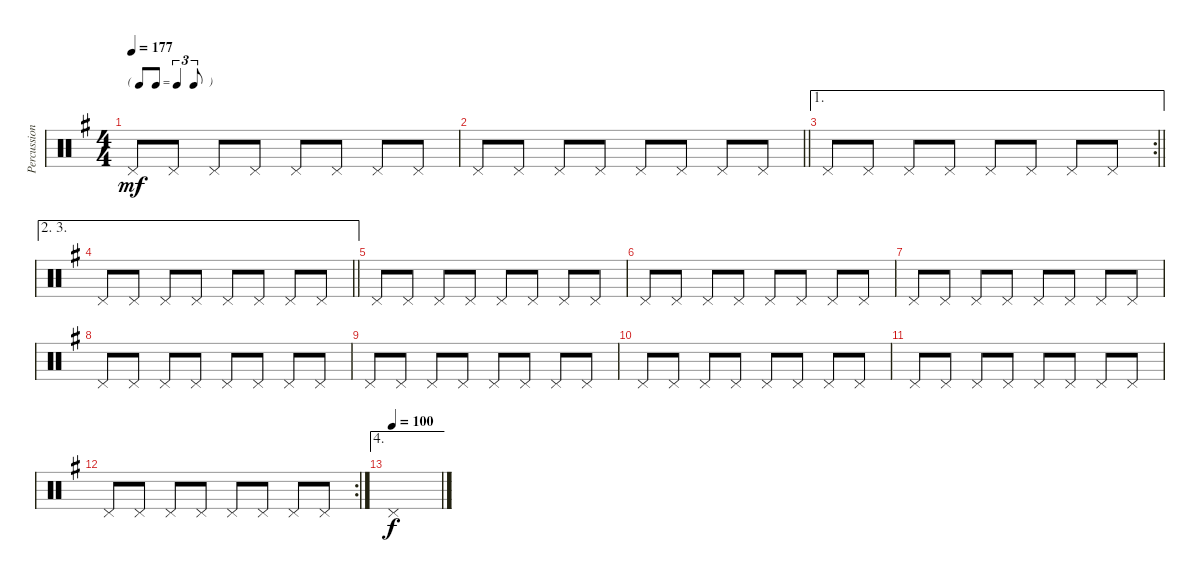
\track ("Percussion" "Percussion") {instrument percussion}
\staff {score}
\articulation defaults
\ts (4 4)
\tf triplet8th
\tempo 177
\clef neutral
\ks g "Pedal Hi-Hat (hit)".8{dy mf} "Pedal Hi-Hat (hit)".8 "Pedal Hi-Hat (hit)".8 "Pedal Hi-Hat (hit)".8 "Pedal Hi-Hat (hit)".8 "Pedal Hi-Hat (hit)".8 "Pedal Hi-Hat (hit)".8 "Pedal Hi-Hat (hit)".8
|
\barLineRight lightlight "Pedal Hi-Hat (hit)".8 "Pedal Hi-Hat (hit)".8 "Pedal Hi-Hat (hit)".8 "Pedal Hi-Hat (hit)".8 "Pedal Hi-Hat (hit)".8 "Pedal Hi-Hat (hit)".8 "Pedal Hi-Hat (hit)".8 "Pedal Hi-Hat (hit)".8
|
\ae 1
\rc 2
\barLineRight lightlight "Pedal Hi-Hat (hit)".8 "Pedal Hi-Hat (hit)".8 "Pedal Hi-Hat (hit)".8 "Pedal Hi-Hat (hit)".8 "Pedal Hi-Hat (hit)".8 "Pedal Hi-Hat (hit)".8 "Pedal Hi-Hat (hit)".8 "Pedal Hi-Hat (hit)".8
|
\ae (2 3)
\barLineRight lightlight "Pedal Hi-Hat (hit)".8 "Pedal Hi-Hat (hit)".8 "Pedal Hi-Hat (hit)".8 "Pedal Hi-Hat (hit)".8 "Pedal Hi-Hat (hit)".8 "Pedal Hi-Hat (hit)".8 "Pedal Hi-Hat (hit)".8 "Pedal Hi-Hat (hit)".8
|
"Pedal Hi-Hat (hit)".8 "Pedal Hi-Hat (hit)".8 "Pedal Hi-Hat (hit)".8 "Pedal Hi-Hat (hit)".8 "Pedal Hi-Hat (hit)".8 "Pedal Hi-Hat (hit)".8 "Pedal Hi-Hat (hit)".8 "Pedal Hi-Hat (hit)".8 |
"Pedal Hi-Hat (hit)".8 "Pedal Hi-Hat (hit)".8 "Pedal Hi-Hat (hit)".8 "Pedal Hi-Hat (hit)".8 "Pedal Hi-Hat (hit)".8 "Pedal Hi-Hat (hit)".8 "Pedal Hi-Hat (hit)".8 "Pedal Hi-Hat (hit)".8 |
"Pedal Hi-Hat (hit)".8 "Pedal Hi-Hat (hit)".8 "Pedal Hi-Hat (hit)".8 "Pedal Hi-Hat (hit)".8 "Pedal Hi-Hat (hit)".8 "Pedal Hi-Hat (hit)".8 "Pedal Hi-Hat (hit)".8 "Pedal Hi-Hat (hit)".8 |
"Pedal Hi-Hat (hit)".8 "Pedal Hi-Hat (hit)".8 "Pedal Hi-Hat (hit)".8 "Pedal Hi-Hat (hit)".8 "Pedal Hi-Hat (hit)".8 "Pedal Hi-Hat (hit)".8 "Pedal Hi-Hat (hit)".8 "Pedal Hi-Hat (hit)".8 |
"Pedal Hi-Hat (hit)".8 "Pedal Hi-Hat (hit)".8 "Pedal Hi-Hat (hit)".8 "Pedal Hi-Hat (hit)".8 "Pedal Hi-Hat (hit)".8 "Pedal Hi-Hat (hit)".8 "Pedal Hi-Hat (hit)".8 "Pedal Hi-Hat (hit)".8 |
"Pedal Hi-Hat (hit)".8 "Pedal Hi-Hat (hit)".8 "Pedal Hi-Hat (hit)".8 "Pedal Hi-Hat (hit)".8 "Pedal Hi-Hat (hit)".8 "Pedal Hi-Hat (hit)".8 "Pedal Hi-Hat (hit)".8 "Pedal Hi-Hat (hit)".8 |
"Pedal Hi-Hat (hit)".8 "Pedal Hi-Hat (hit)".8 "Pedal Hi-Hat (hit)".8 "Pedal Hi-Hat (hit)".8 "Pedal Hi-Hat (hit)".8 "Pedal Hi-Hat (hit)".8 "Pedal Hi-Hat (hit)".8 "Pedal Hi-Hat (hit)".8 |
\rc 2 "Pedal Hi-Hat (hit)".8 "Pedal Hi-Hat (hit)".8 "Pedal Hi-Hat (hit)".8 "Pedal Hi-Hat (hit)".8 "Pedal Hi-Hat (hit)".8 "Pedal Hi-Hat (hit)".8 "Pedal Hi-Hat (hit)".8 "Pedal Hi-Hat (hit)".8
|
\ae 4
\tempo (100)
"Pedal Hi-Hat (hit)".1{dy f}
